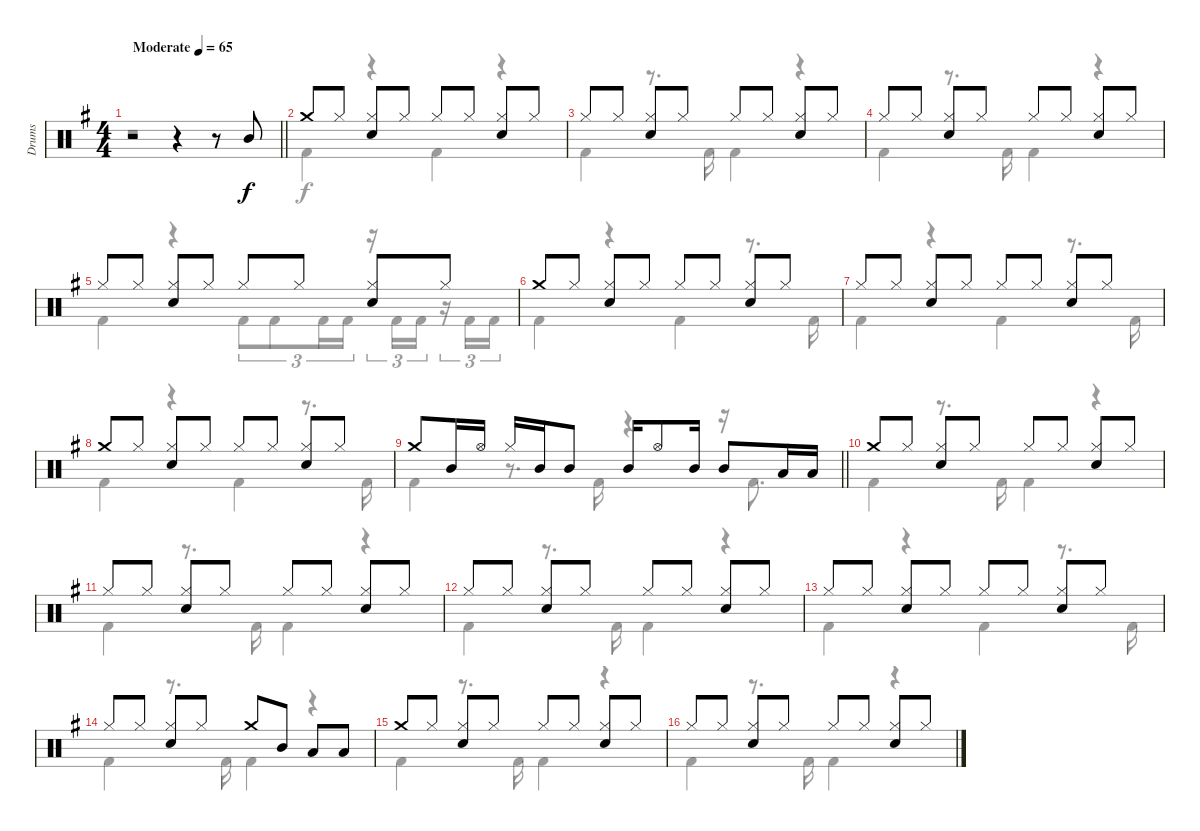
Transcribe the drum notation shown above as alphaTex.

\track ("Drums" "Drums") {instrument percussion}
\staff {score}
\articulation defaults
\voice
\ts (4 4)
\tempo (65 "Moderate")
\clef neutral
\barLineRight lightlight
\ks g
r.2{dy f} r.4 r.8 "Mid Tom (hit)".8 |
"Crash medium (hit)".8 "Hi-Hat (closed)".8 ("Hi-Hat (closed)" "Snare (hit) 2").8 "Hi-Hat (closed)".8 "Hi-Hat (closed)".8 "Hi-Hat (closed)".8 ("Hi-Hat (closed)" "Snare (hit) 2").8 "Hi-Hat (closed)".8 |
"Hi-Hat (closed)".8 "Hi-Hat (closed)".8 ("Hi-Hat (closed)" "Snare (hit) 2").8 "Hi-Hat (closed)".8 "Hi-Hat (closed)".8 "Hi-Hat (closed)".8 ("Hi-Hat (closed)" "Snare (hit) 2").8 "Hi-Hat (closed)".8 |
"Hi-Hat (closed)".8 "Hi-Hat (closed)".8 ("Hi-Hat (closed)" "Snare (hit) 2").8 "Hi-Hat (closed)".8 "Hi-Hat (closed)".8 "Hi-Hat (closed)".8 ("Hi-Hat (closed)" "Snare (hit) 2").8 "Hi-Hat (closed)".8 |
"Hi-Hat (closed)".8 "Hi-Hat (closed)".8 ("Hi-Hat (closed)" "Snare (hit) 2").8 "Hi-Hat (closed)".8 "Hi-Hat (closed)".8 "Hi-Hat (closed)".8 ("Hi-Hat (closed)" "Snare (hit) 2").8 "Hi-Hat (closed)".8 |
"Crash medium (hit)".8 "Hi-Hat (closed)".8 ("Hi-Hat (closed)" "Snare (hit) 2").8 "Hi-Hat (closed)".8 "Hi-Hat (closed)".8 "Hi-Hat (closed)".8 ("Hi-Hat (closed)" "Snare (hit) 2").8 "Hi-Hat (closed)".8 |
"Hi-Hat (closed)".8 "Hi-Hat (closed)".8 ("Hi-Hat (closed)" "Snare (hit) 2").8 "Hi-Hat (closed)".8 "Hi-Hat (closed)".8 "Hi-Hat (closed)".8 ("Hi-Hat (closed)" "Snare (hit) 2").8 "Hi-Hat (closed)".8 |
"Crash medium (hit)".8 "Hi-Hat (closed)".8 ("Hi-Hat (closed)" "Snare (hit) 2").8 "Hi-Hat (closed)".8 "Hi-Hat (closed)".8 "Hi-Hat (closed)".8 ("Hi-Hat (closed)" "Snare (hit) 2").8 "Hi-Hat (closed)".8 |
\barLineRight lightlight "Crash medium (hit)".8 "Mid Tom (hit)".16 "Hi-Hat (open)".16 "Hi-Hat (closed)".16 "Mid Tom (hit)".16 "Mid Tom (hit)".8 "Mid Tom (hit)".16 "Hi-Hat (open)".8 "Mid Tom (hit)".16 "Mid Tom (hit)".8 "Low Tom (hit)".16 "Low Tom (hit)".16
|
"Crash medium (hit)".8 "Hi-Hat (closed)".8 ("Hi-Hat (closed)" "Snare (hit) 2").8 "Hi-Hat (closed)".8 "Hi-Hat (closed)".8 "Hi-Hat (closed)".8 ("Hi-Hat (closed)" "Snare (hit) 2").8 "Hi-Hat (closed)".8 |
"Hi-Hat (closed)".8 "Hi-Hat (closed)".8 ("Hi-Hat (closed)" "Snare (hit) 2").8 "Hi-Hat (closed)".8 "Hi-Hat (closed)".8 "Hi-Hat (closed)".8 ("Hi-Hat (closed)" "Snare (hit) 2").8 "Hi-Hat (closed)".8 |
"Hi-Hat (closed)".8 "Hi-Hat (closed)".8 ("Hi-Hat (closed)" "Snare (hit) 2").8 "Hi-Hat (closed)".8 "Hi-Hat (closed)".8 "Hi-Hat (closed)".8 ("Hi-Hat (closed)" "Snare (hit) 2").8 "Hi-Hat (closed)".8 |
"Hi-Hat (closed)".8 "Hi-Hat (closed)".8 ("Hi-Hat (closed)" "Snare (hit) 2").8 "Hi-Hat (closed)".8 "Hi-Hat (closed)".8 "Hi-Hat (closed)".8 ("Hi-Hat (closed)" "Snare (hit) 2").8 "Hi-Hat (closed)".8 |
"Hi-Hat (closed)".8 "Hi-Hat (closed)".8 ("Hi-Hat (closed)" "Snare (hit) 2").8 "Hi-Hat (closed)".8 "Crash medium (hit)".8 "Mid Tom (hit)".8 "Low Tom (hit)".8 "Low Tom (hit)".8 |
"Crash medium (hit)".8 "Hi-Hat (closed)".8 ("Hi-Hat (closed)" "Snare (hit) 2").8 "Hi-Hat (closed)".8 "Hi-Hat (closed)".8 "Hi-Hat (closed)".8 ("Hi-Hat (closed)" "Snare (hit) 2").8 "Hi-Hat (closed)".8 |
"Hi-Hat (closed)".8 "Hi-Hat (closed)".8 ("Hi-Hat (closed)" "Snare (hit) 2").8 "Hi-Hat (closed)".8 "Hi-Hat (closed)".8 "Hi-Hat (closed)".8 ("Hi-Hat (closed)" "Snare (hit) 2").8 "Hi-Hat (closed)".8
\voice
\clef neutral
\ottava regular
\simile none
\barLineRight lightlight
\ks g
r.1{dy f} |
"Kick (hit) 2".4 r.4 "Kick (hit) 2".4 r.4 |
"Kick (hit) 2".4 r.8{d} "Kick (hit) 2".16 "Kick (hit) 2".4 r.4 |
"Kick (hit) 2".4 r.8{d} "Kick (hit) 2".16 "Kick (hit) 2".4 r.4 |
"Kick (hit) 2".4 r.4 "Kick (hit) 2".8{tu (3 2)} "Kick (hit) 2".8{tu (3 2)} "Kick (hit) 2".16{tu (3 2)} "Kick (hit) 2".16{tu (3 2)} r.16{tu (3 2)} "Kick (hit) 2".16{tu (3 2)} "Kick (hit) 2".16{tu (3 2)} r.16{tu (3 2)} "Kick (hit) 2".16{tu (3 2)} "Kick (hit) 2".16{tu (3 2)} |
"Kick (hit) 2".4 r.4 "Kick (hit) 2".4 r.8{d} "Kick (hit) 2".16 |
"Kick (hit) 2".4 r.4 "Kick (hit) 2".4 r.8{d} "Kick (hit) 2".16 |
"Kick (hit) 2".4 r.4 "Kick (hit) 2".4 r.8{d} "Kick (hit) 2".16 |
\barLineRight lightlight "Kick (hit) 2".4
r.8{d} "Kick (hit) 2".16 r.4 r.16 "Kick (hit) 2".8{d} |
"Kick (hit) 2".4 r.8{d} "Kick (hit) 2".16 "Kick (hit) 2".4 r.4 |
"Kick (hit) 2".4 r.8{d} "Kick (hit) 2".16 "Kick (hit) 2".4 r.4 |
"Kick (hit) 2".4 r.8{d} "Kick (hit) 2".16 "Kick (hit) 2".4 r.4 |
"Kick (hit) 2".4 r.4 "Kick (hit) 2".4 r.8{d} "Kick (hit) 2".16 |
"Kick (hit) 2".4 r.8{d} "Kick (hit) 2".16 "Kick (hit) 2".4 r.4 |
"Kick (hit) 2".4 r.8{d} "Kick (hit) 2".16 "Kick (hit) 2".4 r.4 |
"Kick (hit) 2".4 r.8{d} "Kick (hit) 2".16 "Kick (hit) 2".4 r.4
